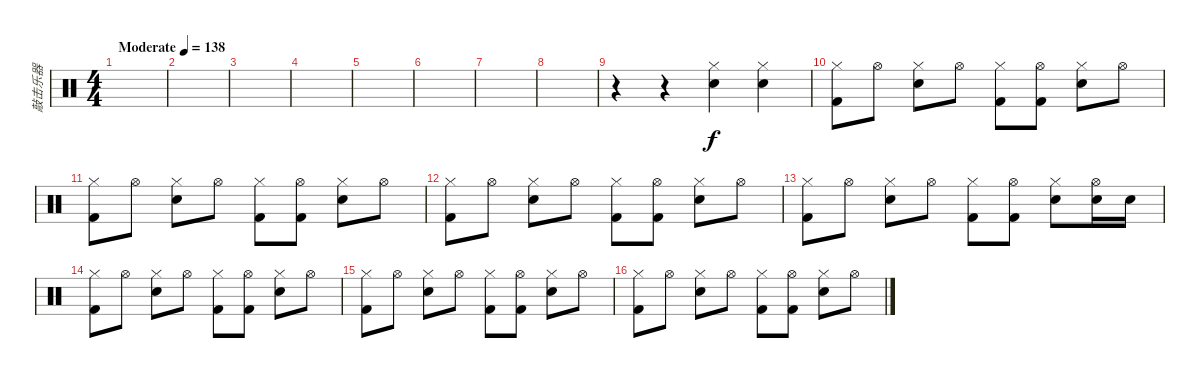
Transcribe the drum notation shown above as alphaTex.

\track ("敲击乐器" "敲击乐器") {instrument percussion}
\staff {score}
\articulation defaults
\ts (4 4)
\tempo (138 "Moderate")
\clef neutral
\ks c
|
|
|
|
|
|
|
|
r.4 r.4 ("Hi-Hat (closed)" "Electric Snare (hit)").4 ("Hi-Hat (closed)" "Electric Snare (hit)").4 |
("Hi-Hat (closed)" "Kick (hit) 2").8 "Hi-Hat (open)".8 ("Hi-Hat (closed)" "Electric Snare (hit)").8 "Hi-Hat (open)".8 ("Hi-Hat (closed)" "Kick (hit) 2").8 ("Hi-Hat (open)" "Kick (hit) 2").8 ("Hi-Hat (closed)" "Electric Snare (hit)").8 "Hi-Hat (open)".8 |
("Hi-Hat (closed)" "Kick (hit) 2").8 "Hi-Hat (open)".8 ("Hi-Hat (closed)" "Electric Snare (hit)").8 "Hi-Hat (open)".8 ("Hi-Hat (closed)" "Kick (hit) 2").8 ("Hi-Hat (open)" "Kick (hit) 2").8 ("Hi-Hat (closed)" "Electric Snare (hit)").8 "Hi-Hat (open)".8 |
("Hi-Hat (closed)" "Kick (hit) 2").8 "Hi-Hat (open)".8 ("Hi-Hat (closed)" "Electric Snare (hit)").8 "Hi-Hat (open)".8 ("Hi-Hat (closed)" "Kick (hit) 2").8 ("Hi-Hat (open)" "Kick (hit) 2").8 ("Hi-Hat (closed)" "Electric Snare (hit)").8 "Hi-Hat (open)".8 |
("Hi-Hat (closed)" "Kick (hit) 2").8 "Hi-Hat (open)".8 ("Hi-Hat (closed)" "Electric Snare (hit)").8 "Hi-Hat (open)".8 ("Hi-Hat (closed)" "Kick (hit) 2").8 ("Hi-Hat (open)" "Kick (hit) 2").8 ("Hi-Hat (closed)" "Electric Snare (hit)").8 ("Hi-Hat (open)" "Electric Snare (hit)").16 "Electric Snare (hit)".16 |
("Hi-Hat (closed)" "Kick (hit) 2").8 "Hi-Hat (open)".8 ("Hi-Hat (closed)" "Electric Snare (hit)").8 "Hi-Hat (open)".8 ("Hi-Hat (closed)" "Kick (hit) 2").8 ("Hi-Hat (open)" "Kick (hit) 2").8 ("Hi-Hat (closed)" "Electric Snare (hit)").8 "Hi-Hat (open)".8 |
("Hi-Hat (closed)" "Kick (hit) 2").8 "Hi-Hat (open)".8 ("Hi-Hat (closed)" "Electric Snare (hit)").8 "Hi-Hat (open)".8 ("Hi-Hat (closed)" "Kick (hit) 2").8 ("Hi-Hat (open)" "Kick (hit) 2").8 ("Hi-Hat (closed)" "Electric Snare (hit)").8 "Hi-Hat (open)".8 |
("Hi-Hat (closed)" "Kick (hit) 2").8 "Hi-Hat (open)".8 ("Hi-Hat (closed)" "Electric Snare (hit)").8 "Hi-Hat (open)".8 ("Hi-Hat (closed)" "Kick (hit) 2").8 ("Hi-Hat (open)" "Kick (hit) 2").8 ("Hi-Hat (closed)" "Electric Snare (hit)").8 "Hi-Hat (open)".8
